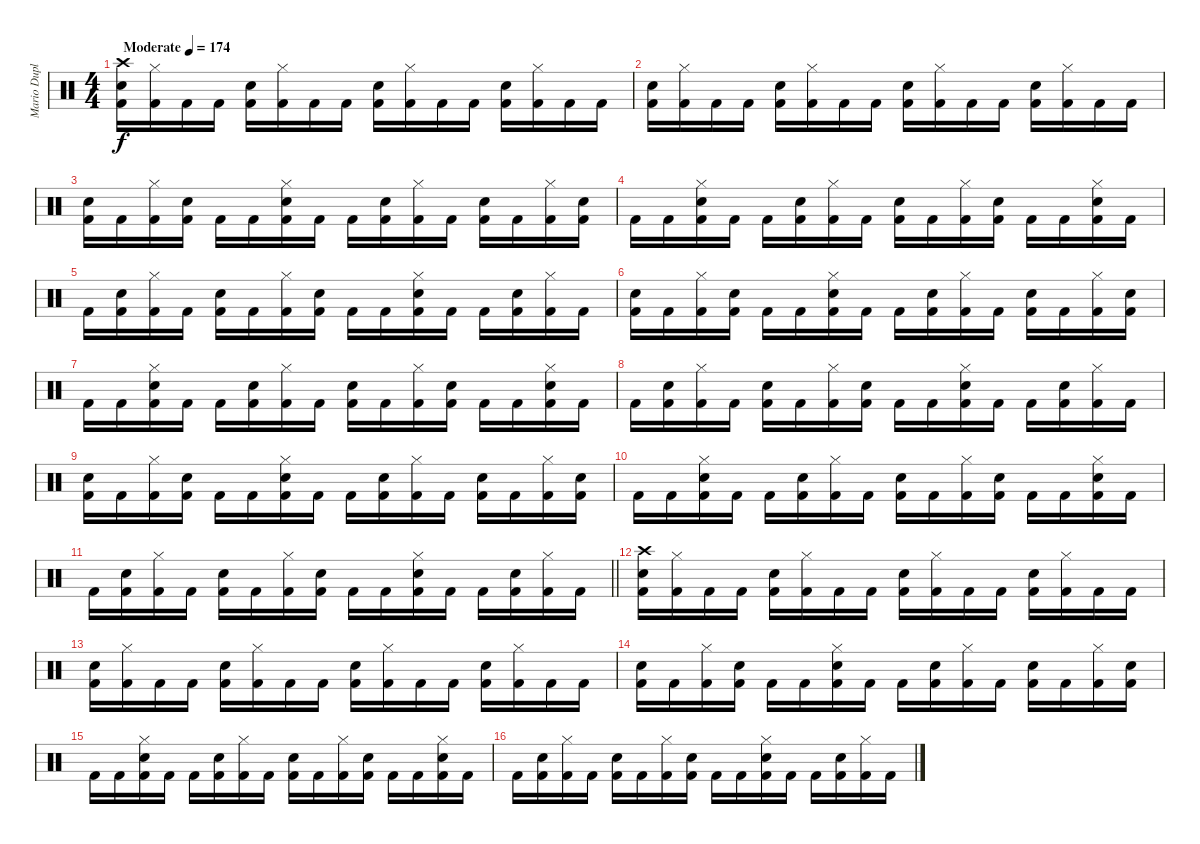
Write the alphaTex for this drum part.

\track ("Mario Duplantier - DRUMS" "Mario Dupl") {instrument percussion}
\staff {score}
\articulation defaults
\ts (4 4)
\tempo (174 "Moderate")
\clef neutral
\ks c
("Crash high (hit)" "Electric Snare (hit)" "Kick (hit) 2").16{dy f} ("Hi-Hat (closed)" "Kick (hit) 2").16 "Kick (hit) 2".16 "Kick (hit) 2".16 ("Electric Snare (hit)" "Kick (hit) 2").16 ("Hi-Hat (closed)" "Kick (hit) 2").16 "Kick (hit) 2".16 "Kick (hit) 2".16 ("Electric Snare (hit)" "Kick (hit) 2").16 ("Hi-Hat (closed)" "Kick (hit) 2").16 "Kick (hit) 2".16 "Kick (hit) 2".16 ("Electric Snare (hit)" "Kick (hit) 2").16 ("Hi-Hat (closed)" "Kick (hit) 2").16 "Kick (hit) 2".16 "Kick (hit) 2".16 |
("Electric Snare (hit)" "Kick (hit) 2").16 ("Hi-Hat (closed)" "Kick (hit) 2").16 "Kick (hit) 2".16 "Kick (hit) 2".16 ("Electric Snare (hit)" "Kick (hit) 2").16 ("Hi-Hat (closed)" "Kick (hit) 2").16 "Kick (hit) 2".16 "Kick (hit) 2".16 ("Electric Snare (hit)" "Kick (hit) 2").16 ("Hi-Hat (closed)" "Kick (hit) 2").16 "Kick (hit) 2".16 "Kick (hit) 2".16 ("Electric Snare (hit)" "Kick (hit) 2").16 ("Hi-Hat (closed)" "Kick (hit) 2").16 "Kick (hit) 2".16 "Kick (hit) 2".16 |
("Electric Snare (hit)" "Kick (hit) 2").16 "Kick (hit) 2".16 ("Hi-Hat (closed)" "Kick (hit) 2").16 ("Electric Snare (hit)" "Kick (hit) 2").16 "Kick (hit) 2".16 "Kick (hit) 2".16 ("Hi-Hat (closed)" "Electric Snare (hit)" "Kick (hit) 2").16 "Kick (hit) 2".16 "Kick (hit) 2".16 ("Electric Snare (hit)" "Kick (hit) 2").16 ("Hi-Hat (closed)" "Kick (hit) 2").16 "Kick (hit) 2".16 ("Electric Snare (hit)" "Kick (hit) 2").16 "Kick (hit) 2".16 ("Hi-Hat (closed)" "Kick (hit) 2").16 ("Electric Snare (hit)" "Kick (hit) 2").16 |
"Kick (hit) 2".16 "Kick (hit) 2".16 ("Hi-Hat (closed)" "Electric Snare (hit)" "Kick (hit) 2").16 "Kick (hit) 2".16 "Kick (hit) 2".16 ("Electric Snare (hit)" "Kick (hit) 2").16 ("Hi-Hat (closed)" "Kick (hit) 2").16 "Kick (hit) 2".16 ("Electric Snare (hit)" "Kick (hit) 2").16 "Kick (hit) 2".16 ("Hi-Hat (closed)" "Kick (hit) 2").16 ("Electric Snare (hit)" "Kick (hit) 2").16 "Kick (hit) 2".16 "Kick (hit) 2".16 ("Hi-Hat (closed)" "Electric Snare (hit)" "Kick (hit) 2").16 "Kick (hit) 2".16 |
"Kick (hit) 2".16 ("Electric Snare (hit)" "Kick (hit) 2").16 ("Hi-Hat (closed)" "Kick (hit) 2").16 "Kick (hit) 2".16 ("Electric Snare (hit)" "Kick (hit) 2").16 "Kick (hit) 2".16 ("Hi-Hat (closed)" "Kick (hit) 2").16 ("Electric Snare (hit)" "Kick (hit) 2").16 "Kick (hit) 2".16 "Kick (hit) 2".16 ("Hi-Hat (closed)" "Electric Snare (hit)" "Kick (hit) 2").16 "Kick (hit) 2".16 "Kick (hit) 2".16 ("Electric Snare (hit)" "Kick (hit) 2").16 ("Hi-Hat (closed)" "Kick (hit) 2").16 "Kick (hit) 2".16 |
("Electric Snare (hit)" "Kick (hit) 2").16 "Kick (hit) 2".16 ("Hi-Hat (closed)" "Kick (hit) 2").16 ("Electric Snare (hit)" "Kick (hit) 2").16 "Kick (hit) 2".16 "Kick (hit) 2".16 ("Hi-Hat (closed)" "Electric Snare (hit)" "Kick (hit) 2").16 "Kick (hit) 2".16 "Kick (hit) 2".16 ("Electric Snare (hit)" "Kick (hit) 2").16 ("Hi-Hat (closed)" "Kick (hit) 2").16 "Kick (hit) 2".16 ("Electric Snare (hit)" "Kick (hit) 2").16 "Kick (hit) 2".16 ("Hi-Hat (closed)" "Kick (hit) 2").16 ("Electric Snare (hit)" "Kick (hit) 2").16 |
"Kick (hit) 2".16 "Kick (hit) 2".16 ("Hi-Hat (closed)" "Electric Snare (hit)" "Kick (hit) 2").16 "Kick (hit) 2".16 "Kick (hit) 2".16 ("Electric Snare (hit)" "Kick (hit) 2").16 ("Hi-Hat (closed)" "Kick (hit) 2").16 "Kick (hit) 2".16 ("Electric Snare (hit)" "Kick (hit) 2").16 "Kick (hit) 2".16 ("Hi-Hat (closed)" "Kick (hit) 2").16 ("Electric Snare (hit)" "Kick (hit) 2").16 "Kick (hit) 2".16 "Kick (hit) 2".16 ("Hi-Hat (closed)" "Electric Snare (hit)" "Kick (hit) 2").16 "Kick (hit) 2".16 |
"Kick (hit) 2".16 ("Electric Snare (hit)" "Kick (hit) 2").16 ("Hi-Hat (closed)" "Kick (hit) 2").16 "Kick (hit) 2".16 ("Electric Snare (hit)" "Kick (hit) 2").16 "Kick (hit) 2".16 ("Hi-Hat (closed)" "Kick (hit) 2").16 ("Electric Snare (hit)" "Kick (hit) 2").16 "Kick (hit) 2".16 "Kick (hit) 2".16 ("Hi-Hat (closed)" "Electric Snare (hit)" "Kick (hit) 2").16 "Kick (hit) 2".16 "Kick (hit) 2".16 ("Electric Snare (hit)" "Kick (hit) 2").16 ("Hi-Hat (closed)" "Kick (hit) 2").16 "Kick (hit) 2".16 |
("Electric Snare (hit)" "Kick (hit) 2").16 "Kick (hit) 2".16 ("Hi-Hat (closed)" "Kick (hit) 2").16 ("Electric Snare (hit)" "Kick (hit) 2").16 "Kick (hit) 2".16 "Kick (hit) 2".16 ("Hi-Hat (closed)" "Electric Snare (hit)" "Kick (hit) 2").16 "Kick (hit) 2".16 "Kick (hit) 2".16 ("Electric Snare (hit)" "Kick (hit) 2").16 ("Hi-Hat (closed)" "Kick (hit) 2").16 "Kick (hit) 2".16 ("Electric Snare (hit)" "Kick (hit) 2").16 "Kick (hit) 2".16 ("Hi-Hat (closed)" "Kick (hit) 2").16 ("Electric Snare (hit)" "Kick (hit) 2").16 |
"Kick (hit) 2".16 "Kick (hit) 2".16 ("Hi-Hat (closed)" "Electric Snare (hit)" "Kick (hit) 2").16 "Kick (hit) 2".16 "Kick (hit) 2".16 ("Electric Snare (hit)" "Kick (hit) 2").16 ("Hi-Hat (closed)" "Kick (hit) 2").16 "Kick (hit) 2".16 ("Electric Snare (hit)" "Kick (hit) 2").16 "Kick (hit) 2".16 ("Hi-Hat (closed)" "Kick (hit) 2").16 ("Electric Snare (hit)" "Kick (hit) 2").16 "Kick (hit) 2".16 "Kick (hit) 2".16 ("Hi-Hat (closed)" "Electric Snare (hit)" "Kick (hit) 2").16 "Kick (hit) 2".16 |
\barLineRight lightlight "Kick (hit) 2".16
("Electric Snare (hit)" "Kick (hit) 2").16 ("Hi-Hat (closed)" "Kick (hit) 2").16 "Kick (hit) 2".16 ("Electric Snare (hit)" "Kick (hit) 2").16 "Kick (hit) 2".16 ("Hi-Hat (closed)" "Kick (hit) 2").16 ("Electric Snare (hit)" "Kick (hit) 2").16 "Kick (hit) 2".16 "Kick (hit) 2".16 ("Hi-Hat (closed)" "Electric Snare (hit)" "Kick (hit) 2").16 "Kick (hit) 2".16 "Kick (hit) 2".16 ("Electric Snare (hit)" "Kick (hit) 2").16 ("Hi-Hat (closed)" "Kick (hit) 2").16 "Kick (hit) 2".16 |
\section ("" "")
("Crash high (hit)" "Electric Snare (hit)" "Kick (hit) 2").16 ("Hi-Hat (closed)" "Kick (hit) 2").16 "Kick (hit) 2".16 "Kick (hit) 2".16 ("Electric Snare (hit)" "Kick (hit) 2").16 ("Hi-Hat (closed)" "Kick (hit) 2").16 "Kick (hit) 2".16 "Kick (hit) 2".16 ("Electric Snare (hit)" "Kick (hit) 2").16 ("Hi-Hat (closed)" "Kick (hit) 2").16 "Kick (hit) 2".16 "Kick (hit) 2".16 ("Electric Snare (hit)" "Kick (hit) 2").16 ("Hi-Hat (closed)" "Kick (hit) 2").16 "Kick (hit) 2".16 "Kick (hit) 2".16 |
("Electric Snare (hit)" "Kick (hit) 2").16 ("Hi-Hat (closed)" "Kick (hit) 2").16 "Kick (hit) 2".16 "Kick (hit) 2".16 ("Electric Snare (hit)" "Kick (hit) 2").16 ("Hi-Hat (closed)" "Kick (hit) 2").16 "Kick (hit) 2".16 "Kick (hit) 2".16 ("Electric Snare (hit)" "Kick (hit) 2").16 ("Hi-Hat (closed)" "Kick (hit) 2").16 "Kick (hit) 2".16 "Kick (hit) 2".16 ("Electric Snare (hit)" "Kick (hit) 2").16 ("Hi-Hat (closed)" "Kick (hit) 2").16 "Kick (hit) 2".16 "Kick (hit) 2".16 |
("Electric Snare (hit)" "Kick (hit) 2").16 "Kick (hit) 2".16 ("Hi-Hat (closed)" "Kick (hit) 2").16 ("Electric Snare (hit)" "Kick (hit) 2").16 "Kick (hit) 2".16 "Kick (hit) 2".16 ("Hi-Hat (closed)" "Electric Snare (hit)" "Kick (hit) 2").16 "Kick (hit) 2".16 "Kick (hit) 2".16 ("Electric Snare (hit)" "Kick (hit) 2").16 ("Hi-Hat (closed)" "Kick (hit) 2").16 "Kick (hit) 2".16 ("Electric Snare (hit)" "Kick (hit) 2").16 "Kick (hit) 2".16 ("Hi-Hat (closed)" "Kick (hit) 2").16 ("Electric Snare (hit)" "Kick (hit) 2").16 |
"Kick (hit) 2".16 "Kick (hit) 2".16 ("Hi-Hat (closed)" "Electric Snare (hit)" "Kick (hit) 2").16 "Kick (hit) 2".16 "Kick (hit) 2".16 ("Electric Snare (hit)" "Kick (hit) 2").16 ("Hi-Hat (closed)" "Kick (hit) 2").16 "Kick (hit) 2".16 ("Electric Snare (hit)" "Kick (hit) 2").16 "Kick (hit) 2".16 ("Hi-Hat (closed)" "Kick (hit) 2").16 ("Electric Snare (hit)" "Kick (hit) 2").16 "Kick (hit) 2".16 "Kick (hit) 2".16 ("Hi-Hat (closed)" "Electric Snare (hit)" "Kick (hit) 2").16 "Kick (hit) 2".16 |
"Kick (hit) 2".16 ("Electric Snare (hit)" "Kick (hit) 2").16 ("Hi-Hat (closed)" "Kick (hit) 2").16 "Kick (hit) 2".16 ("Electric Snare (hit)" "Kick (hit) 2").16 "Kick (hit) 2".16 ("Hi-Hat (closed)" "Kick (hit) 2").16 ("Electric Snare (hit)" "Kick (hit) 2").16 "Kick (hit) 2".16 "Kick (hit) 2".16 ("Hi-Hat (closed)" "Electric Snare (hit)" "Kick (hit) 2").16 "Kick (hit) 2".16 "Kick (hit) 2".16 ("Electric Snare (hit)" "Kick (hit) 2").16 ("Hi-Hat (closed)" "Kick (hit) 2").16 "Kick (hit) 2".16
